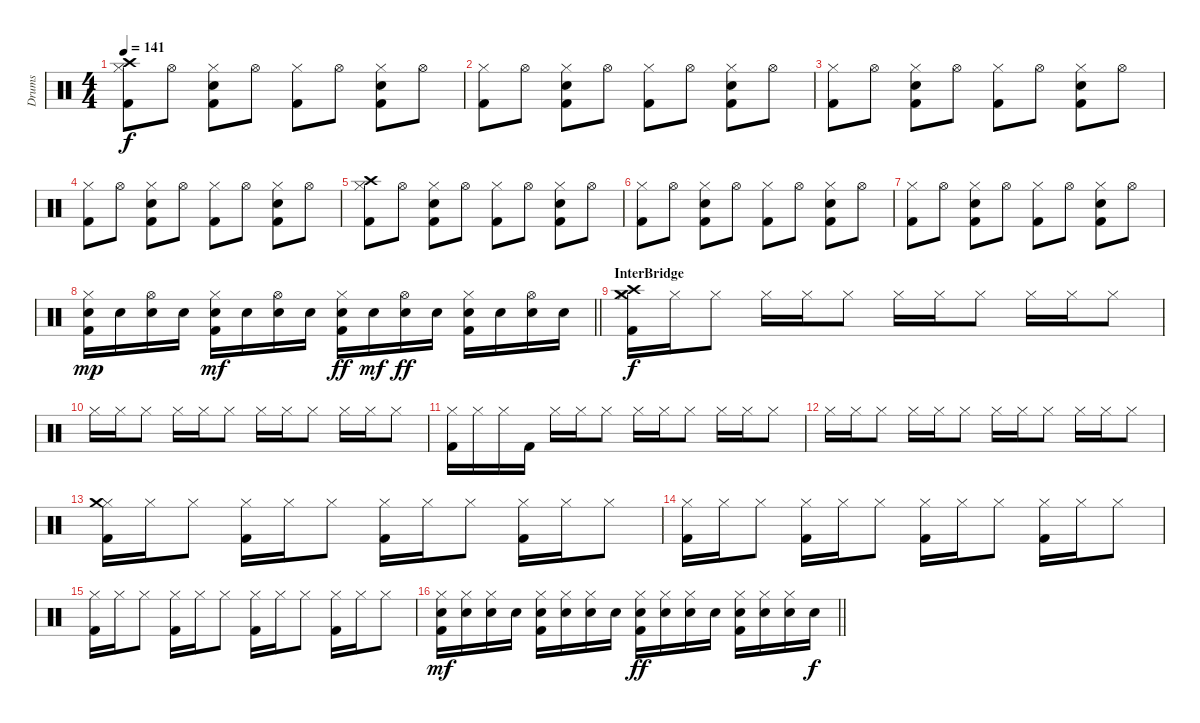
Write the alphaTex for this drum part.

\track ("Drums" "Drums") {instrument percussion}
\staff {score}
\articulation defaults
\ts (4 4)
\tempo 141
\clef neutral
\ks c
("Hi-Hat (closed)" "Crash high (hit)" "Kick (hit) 2").8{dy f} "Hi-Hat (open)".8 ("Hi-Hat (closed)" "Snare (hit) 2" "Kick (hit) 2").8 "Hi-Hat (open)".8 ("Hi-Hat (closed)" "Kick (hit) 2").8 "Hi-Hat (open)".8 ("Hi-Hat (closed)" "Snare (hit) 2" "Kick (hit) 2").8 "Hi-Hat (open)".8 |
("Hi-Hat (closed)" "Kick (hit) 2").8 "Hi-Hat (open)".8 ("Hi-Hat (closed)" "Snare (hit) 2" "Kick (hit) 2").8 "Hi-Hat (open)".8 ("Hi-Hat (closed)" "Kick (hit) 2").8 "Hi-Hat (open)".8 ("Hi-Hat (closed)" "Snare (hit) 2" "Kick (hit) 2").8 "Hi-Hat (open)".8 |
("Hi-Hat (closed)" "Kick (hit) 2").8 "Hi-Hat (open)".8 ("Hi-Hat (closed)" "Snare (hit) 2" "Kick (hit) 2").8 "Hi-Hat (open)".8 ("Hi-Hat (closed)" "Kick (hit) 2").8 "Hi-Hat (open)".8 ("Hi-Hat (closed)" "Snare (hit) 2" "Kick (hit) 2").8 "Hi-Hat (open)".8 |
("Hi-Hat (closed)" "Kick (hit) 2").8 "Hi-Hat (open)".8 ("Hi-Hat (closed)" "Snare (hit) 2" "Kick (hit) 2").8 "Hi-Hat (open)".8 ("Hi-Hat (closed)" "Kick (hit) 2").8 "Hi-Hat (open)".8 ("Hi-Hat (closed)" "Snare (hit) 2" "Kick (hit) 2").8 "Hi-Hat (open)".8 |
("Hi-Hat (closed)" "Crash high (hit)" "Kick (hit) 2").8 "Hi-Hat (open)".8 ("Hi-Hat (closed)" "Snare (hit) 2" "Kick (hit) 2").8 "Hi-Hat (open)".8 ("Hi-Hat (closed)" "Kick (hit) 2").8 "Hi-Hat (open)".8 ("Hi-Hat (closed)" "Snare (hit) 2" "Kick (hit) 2").8 "Hi-Hat (open)".8 |
("Hi-Hat (closed)" "Kick (hit) 2").8 "Hi-Hat (open)".8 ("Hi-Hat (closed)" "Snare (hit) 2" "Kick (hit) 2").8 "Hi-Hat (open)".8 ("Hi-Hat (closed)" "Kick (hit) 2").8 "Hi-Hat (open)".8 ("Hi-Hat (closed)" "Snare (hit) 2" "Kick (hit) 2").8 "Hi-Hat (open)".8 |
("Hi-Hat (closed)" "Kick (hit) 2").8 "Hi-Hat (open)".8 ("Hi-Hat (closed)" "Snare (hit) 2" "Kick (hit) 2").8 "Hi-Hat (open)".8 ("Hi-Hat (closed)" "Kick (hit) 2").8 "Hi-Hat (open)".8 ("Hi-Hat (closed)" "Snare (hit) 2" "Kick (hit) 2").8 "Hi-Hat (open)".8 |
\barLineRight lightlight
("Hi-Hat (closed)" "Snare (hit) 2" "Kick (hit) 2").16{dy mp} "Snare (hit) 2".16 ("Hi-Hat (open)" "Snare (hit) 2").16 "Snare (hit) 2".16 ("Hi-Hat (closed)" "Snare (hit) 2" "Kick (hit) 2").16{dy mf} "Snare (hit) 2".16 ("Hi-Hat (open)" "Snare (hit) 2").16 "Snare (hit) 2".16 ("Hi-Hat (closed)" "Snare (hit) 2" "Kick (hit) 2").16{dy ff} "Snare (hit) 2".16{dy mf} ("Hi-Hat (open)" "Snare (hit) 2").16{dy ff} "Snare (hit) 2".16 ("Hi-Hat (closed)" "Snare (hit) 2" "Kick (hit) 2").16 "Snare (hit) 2".16 ("Hi-Hat (open)" "Snare (hit) 2").16 "Snare (hit) 2".16 |
\section ("" "InterBridge")
("Hi-Hat (closed)" "Crash high (hit)" "Crash medium (hit)" "Kick (hit) 2").16{dy f} "Hi-Hat (closed)".16 "Hi-Hat (closed)".8 "Hi-Hat (closed)".16 "Hi-Hat (closed)".16 "Hi-Hat (closed)".8 "Hi-Hat (closed)".16 "Hi-Hat (closed)".16 "Hi-Hat (closed)".8 "Hi-Hat (closed)".16 "Hi-Hat (closed)".16 "Hi-Hat (closed)".8 |
"Hi-Hat (closed)".16 "Hi-Hat (closed)".16 "Hi-Hat (closed)".8 "Hi-Hat (closed)".16 "Hi-Hat (closed)".16 "Hi-Hat (closed)".8 "Hi-Hat (closed)".16 "Hi-Hat (closed)".16 "Hi-Hat (closed)".8 "Hi-Hat (closed)".16 "Hi-Hat (closed)".16 "Hi-Hat (closed)".8 |
("Hi-Hat (closed)" "Kick (hit) 2").16 "Hi-Hat (closed)".16 "Hi-Hat (closed)".16 "Kick (hit) 2".16 "Hi-Hat (closed)".16 "Hi-Hat (closed)".16 "Hi-Hat (closed)".8 "Hi-Hat (closed)".16 "Hi-Hat (closed)".16 "Hi-Hat (closed)".8 "Hi-Hat (closed)".16 "Hi-Hat (closed)".16 "Hi-Hat (closed)".8 |
"Hi-Hat (closed)".16 "Hi-Hat (closed)".16 "Hi-Hat (closed)".8 "Hi-Hat (closed)".16 "Hi-Hat (closed)".16 "Hi-Hat (closed)".8 "Hi-Hat (closed)".16 "Hi-Hat (closed)".16 "Hi-Hat (closed)".8 "Hi-Hat (closed)".16 "Hi-Hat (closed)".16 "Hi-Hat (closed)".8 |
("Hi-Hat (closed)" "Crash medium (hit)" "Kick (hit) 2").16 "Hi-Hat (closed)".16 "Hi-Hat (closed)".8 ("Hi-Hat (closed)" "Kick (hit) 2").16 "Hi-Hat (closed)".16 "Hi-Hat (closed)".8 ("Hi-Hat (closed)" "Kick (hit) 2").16 "Hi-Hat (closed)".16 "Hi-Hat (closed)".8 ("Hi-Hat (closed)" "Kick (hit) 2").16 "Hi-Hat (closed)".16 "Hi-Hat (closed)".8 |
("Hi-Hat (closed)" "Kick (hit) 2").16 "Hi-Hat (closed)".16 "Hi-Hat (closed)".8 ("Hi-Hat (closed)" "Kick (hit) 2").16 "Hi-Hat (closed)".16 "Hi-Hat (closed)".8 ("Hi-Hat (closed)" "Kick (hit) 2").16 "Hi-Hat (closed)".16 "Hi-Hat (closed)".8 ("Hi-Hat (closed)" "Kick (hit) 2").16 "Hi-Hat (closed)".16 "Hi-Hat (closed)".8 |
("Hi-Hat (closed)" "Kick (hit) 2").16 "Hi-Hat (closed)".16 "Hi-Hat (closed)".8 ("Hi-Hat (closed)" "Kick (hit) 2").16 "Hi-Hat (closed)".16 "Hi-Hat (closed)".8 ("Hi-Hat (closed)" "Kick (hit) 2").16 "Hi-Hat (closed)".16 "Hi-Hat (closed)".8 ("Hi-Hat (closed)" "Kick (hit) 2").16 "Hi-Hat (closed)".16 "Hi-Hat (closed)".8 |
\barLineRight lightlight
("Hi-Hat (closed)" "Snare (hit) 2" "Kick (hit) 2").16{dy mf} ("Hi-Hat (closed)" "Snare (hit) 2").16 ("Hi-Hat (closed)" "Snare (hit) 2").16 "Snare (hit) 2".16 ("Hi-Hat (closed)" "Snare (hit) 2" "Kick (hit) 2").16 ("Hi-Hat (closed)" "Snare (hit) 2").16 ("Hi-Hat (closed)" "Snare (hit) 2").16 "Snare (hit) 2".16 ("Hi-Hat (closed)" "Snare (hit) 2" "Kick (hit) 2").16{dy ff} ("Hi-Hat (closed)" "Snare (hit) 2").16 ("Hi-Hat (closed)" "Snare (hit) 2").16 "Snare (hit) 2".16 ("Hi-Hat (closed)" "Snare (hit) 2" "Kick (hit) 2").16 ("Hi-Hat (closed)" "Snare (hit) 2").16 ("Hi-Hat (closed)" "Snare (hit) 2").16 "Snare (hit) 2".16{dy f}
